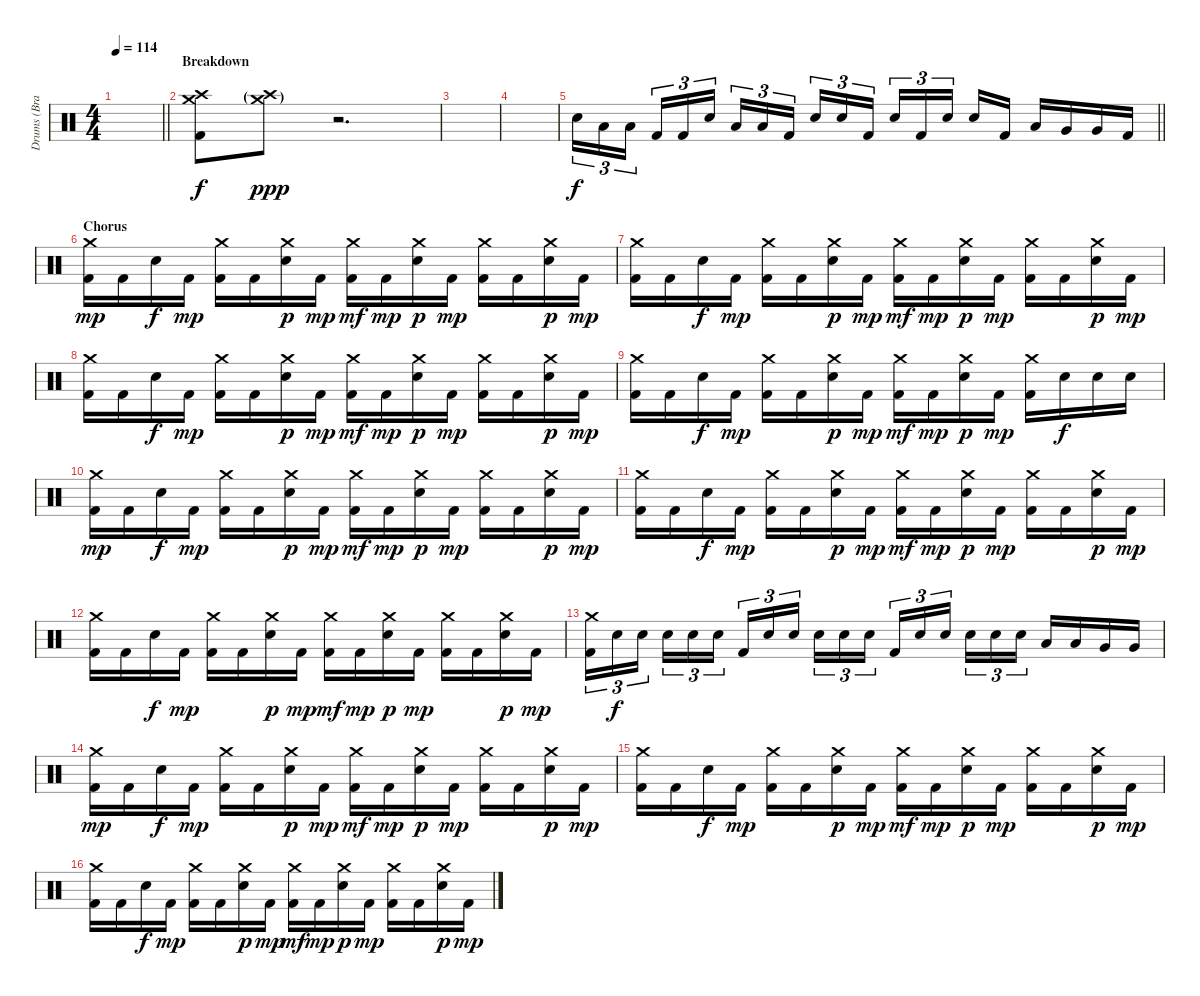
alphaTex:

\track ("Drums (Brandon Saller)" "Drums (Bra") {instrument percussion}
\staff {score}
\articulation defaults
\ts (4 4)
\tempo 114
\clef neutral
\barLineRight lightlight
\ks c
|
\section ("" "Breakdown")
("Crash high (hit)" "Crash medium (hit)" "Kick (hit) 2").8 ("Crash high (hit)"{g} "Crash medium (hit)"{g}).8{dy ppp} r.2{d} |
|
|
\barLineRight lightlight "Electric Snare (hit)".16{tu (3 2) dy f} "Low Tom (hit)".16{tu (3 2)} "Low Tom (hit)".16{tu (3 2) beam splitsecondary} "Kick (hit) 2".16{tu (3 2)} "Kick (hit) 2".16{tu (3 2)} "Electric Snare (hit)".16{tu (3 2)} "Low Tom (hit)".16{tu (3 2)} "Low Tom (hit)".16{tu (3 2)} "Kick (hit) 2".16{tu (3 2) beam splitsecondary} "Electric Snare (hit)".16{tu (3 2)} "Electric Snare (hit)".16{tu (3 2)} "Kick (hit) 2".16{tu (3 2)} "Electric Snare (hit)".16{tu (3 2)} "Kick (hit) 2".16{tu (3 2)} "Electric Snare (hit)".16{tu (3 2) beam splitsecondary} "Electric Snare (hit)".16 "Kick (hit) 2".16 "Low Tom (hit)".16 "Very Low Tom (hit)".16 "Very Low Tom (hit)".16 "Kick (hit) 2".16
|
\section ("" "Chorus")
("Crash medium (hit)" "Kick (hit) 2").16{dy mp} "Kick (hit) 2".16 "Electric Snare (hit)".16{dy f} "Kick (hit) 2".16{dy mp} ("Crash medium (hit)" "Kick (hit) 2").16 "Kick (hit) 2".16 ("Crash medium (hit)" "Electric Snare (hit)").16{dy p} "Kick (hit) 2".16{dy mp} ("Crash medium (hit)" "Kick (hit) 2").16{dy mf} "Kick (hit) 2".16{dy mp} ("Crash medium (hit)" "Electric Snare (hit)").16{dy p} "Kick (hit) 2".16{dy mp} ("Crash medium (hit)" "Kick (hit) 2").16 "Kick (hit) 2".16 ("Crash medium (hit)" "Electric Snare (hit)").16{dy p} "Kick (hit) 2".16{dy mp} |
("Crash medium (hit)" "Kick (hit) 2").16 "Kick (hit) 2".16 "Electric Snare (hit)".16{dy f} "Kick (hit) 2".16{dy mp} ("Crash medium (hit)" "Kick (hit) 2").16 "Kick (hit) 2".16 ("Crash medium (hit)" "Electric Snare (hit)").16{dy p} "Kick (hit) 2".16{dy mp} ("Crash medium (hit)" "Kick (hit) 2").16{dy mf} "Kick (hit) 2".16{dy mp} ("Crash medium (hit)" "Electric Snare (hit)").16{dy p} "Kick (hit) 2".16{dy mp} ("Crash medium (hit)" "Kick (hit) 2").16 "Kick (hit) 2".16 ("Crash medium (hit)" "Electric Snare (hit)").16{dy p} "Kick (hit) 2".16{dy mp} |
("Crash medium (hit)" "Kick (hit) 2").16 "Kick (hit) 2".16 "Electric Snare (hit)".16{dy f} "Kick (hit) 2".16{dy mp} ("Crash medium (hit)" "Kick (hit) 2").16 "Kick (hit) 2".16 ("Crash medium (hit)" "Electric Snare (hit)").16{dy p} "Kick (hit) 2".16{dy mp} ("Crash medium (hit)" "Kick (hit) 2").16{dy mf} "Kick (hit) 2".16{dy mp} ("Crash medium (hit)" "Electric Snare (hit)").16{dy p} "Kick (hit) 2".16{dy mp} ("Crash medium (hit)" "Kick (hit) 2").16 "Kick (hit) 2".16 ("Crash medium (hit)" "Electric Snare (hit)").16{dy p} "Kick (hit) 2".16{dy mp} |
("Crash medium (hit)" "Kick (hit) 2").16 "Kick (hit) 2".16 "Electric Snare (hit)".16{dy f} "Kick (hit) 2".16{dy mp} ("Crash medium (hit)" "Kick (hit) 2").16 "Kick (hit) 2".16 ("Crash medium (hit)" "Electric Snare (hit)").16{dy p} "Kick (hit) 2".16{dy mp} ("Crash medium (hit)" "Kick (hit) 2").16{dy mf} "Kick (hit) 2".16{dy mp} ("Crash medium (hit)" "Electric Snare (hit)").16{dy p} "Kick (hit) 2".16{dy mp} ("Crash medium (hit)" "Kick (hit) 2").16 "Electric Snare (hit)".16{dy f} "Electric Snare (hit)".16 "Electric Snare (hit)".16 |
("Crash medium (hit)" "Kick (hit) 2").16{dy mp} "Kick (hit) 2".16 "Electric Snare (hit)".16{dy f} "Kick (hit) 2".16{dy mp} ("Crash medium (hit)" "Kick (hit) 2").16 "Kick (hit) 2".16 ("Crash medium (hit)" "Electric Snare (hit)").16{dy p} "Kick (hit) 2".16{dy mp} ("Crash medium (hit)" "Kick (hit) 2").16{dy mf} "Kick (hit) 2".16{dy mp} ("Crash medium (hit)" "Electric Snare (hit)").16{dy p} "Kick (hit) 2".16{dy mp} ("Crash medium (hit)" "Kick (hit) 2").16 "Kick (hit) 2".16 ("Crash medium (hit)" "Electric Snare (hit)").16{dy p} "Kick (hit) 2".16{dy mp} |
("Crash medium (hit)" "Kick (hit) 2").16 "Kick (hit) 2".16 "Electric Snare (hit)".16{dy f} "Kick (hit) 2".16{dy mp} ("Crash medium (hit)" "Kick (hit) 2").16 "Kick (hit) 2".16 ("Crash medium (hit)" "Electric Snare (hit)").16{dy p} "Kick (hit) 2".16{dy mp} ("Crash medium (hit)" "Kick (hit) 2").16{dy mf} "Kick (hit) 2".16{dy mp} ("Crash medium (hit)" "Electric Snare (hit)").16{dy p} "Kick (hit) 2".16{dy mp} ("Crash medium (hit)" "Kick (hit) 2").16 "Kick (hit) 2".16 ("Crash medium (hit)" "Electric Snare (hit)").16{dy p} "Kick (hit) 2".16{dy mp} |
("Crash medium (hit)" "Kick (hit) 2").16 "Kick (hit) 2".16 "Electric Snare (hit)".16{dy f} "Kick (hit) 2".16{dy mp} ("Crash medium (hit)" "Kick (hit) 2").16 "Kick (hit) 2".16 ("Crash medium (hit)" "Electric Snare (hit)").16{dy p} "Kick (hit) 2".16{dy mp} ("Crash medium (hit)" "Kick (hit) 2").16{dy mf} "Kick (hit) 2".16{dy mp} ("Crash medium (hit)" "Electric Snare (hit)").16{dy p} "Kick (hit) 2".16{dy mp} ("Crash medium (hit)" "Kick (hit) 2").16 "Kick (hit) 2".16 ("Crash medium (hit)" "Electric Snare (hit)").16{dy p} "Kick (hit) 2".16{dy mp} |
("Crash medium (hit)" "Kick (hit) 2").16{tu (3 2)} "Electric Snare (hit)".16{tu (3 2) dy f} "Electric Snare (hit)".16{tu (3 2) beam splitsecondary} "Electric Snare (hit)".16{tu (3 2)} "Electric Snare (hit)".16{tu (3 2)} "Electric Snare (hit)".16{tu (3 2)} "Kick (hit) 2".16{tu (3 2)} "Electric Snare (hit)".16{tu (3 2)} "Electric Snare (hit)".16{tu (3 2) beam splitsecondary} "Electric Snare (hit)".16{tu (3 2)} "Electric Snare (hit)".16{tu (3 2)} "Electric Snare (hit)".16{tu (3 2)} "Kick (hit) 2".16{tu (3 2)} "Electric Snare (hit)".16{tu (3 2)} "Electric Snare (hit)".16{tu (3 2) beam splitsecondary} "Electric Snare (hit)".16{tu (3 2)} "Electric Snare (hit)".16{tu (3 2)} "Electric Snare (hit)".16{tu (3 2)} "Low Tom (hit)".16 "Low Tom (hit)".16 "Very Low Tom (hit)".16 "Very Low Tom (hit)".16 |
("Crash medium (hit)" "Kick (hit) 2").16{dy mp} "Kick (hit) 2".16 "Electric Snare (hit)".16{dy f} "Kick (hit) 2".16{dy mp} ("Crash medium (hit)" "Kick (hit) 2").16 "Kick (hit) 2".16 ("Crash medium (hit)" "Electric Snare (hit)").16{dy p} "Kick (hit) 2".16{dy mp} ("Crash medium (hit)" "Kick (hit) 2").16{dy mf} "Kick (hit) 2".16{dy mp} ("Crash medium (hit)" "Electric Snare (hit)").16{dy p} "Kick (hit) 2".16{dy mp} ("Crash medium (hit)" "Kick (hit) 2").16 "Kick (hit) 2".16 ("Crash medium (hit)" "Electric Snare (hit)").16{dy p} "Kick (hit) 2".16{dy mp} |
("Crash medium (hit)" "Kick (hit) 2").16 "Kick (hit) 2".16 "Electric Snare (hit)".16{dy f} "Kick (hit) 2".16{dy mp} ("Crash medium (hit)" "Kick (hit) 2").16 "Kick (hit) 2".16 ("Crash medium (hit)" "Electric Snare (hit)").16{dy p} "Kick (hit) 2".16{dy mp} ("Crash medium (hit)" "Kick (hit) 2").16{dy mf} "Kick (hit) 2".16{dy mp} ("Crash medium (hit)" "Electric Snare (hit)").16{dy p} "Kick (hit) 2".16{dy mp} ("Crash medium (hit)" "Kick (hit) 2").16 "Kick (hit) 2".16 ("Crash medium (hit)" "Electric Snare (hit)").16{dy p} "Kick (hit) 2".16{dy mp} |
("Crash medium (hit)" "Kick (hit) 2").16 "Kick (hit) 2".16 "Electric Snare (hit)".16{dy f} "Kick (hit) 2".16{dy mp} ("Crash medium (hit)" "Kick (hit) 2").16 "Kick (hit) 2".16 ("Crash medium (hit)" "Electric Snare (hit)").16{dy p} "Kick (hit) 2".16{dy mp} ("Crash medium (hit)" "Kick (hit) 2").16{dy mf} "Kick (hit) 2".16{dy mp} ("Crash medium (hit)" "Electric Snare (hit)").16{dy p} "Kick (hit) 2".16{dy mp} ("Crash medium (hit)" "Kick (hit) 2").16 "Kick (hit) 2".16 ("Crash medium (hit)" "Electric Snare (hit)").16{dy p} "Kick (hit) 2".16{dy mp}
